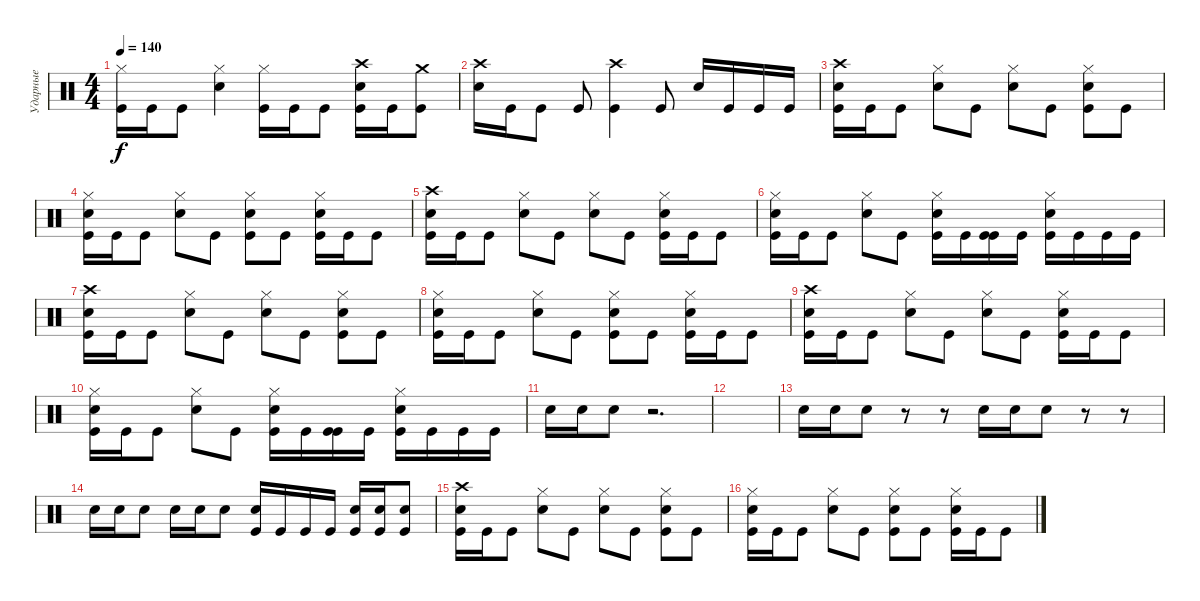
\track ("Ударные" "Ударные") {instrument percussion}
\staff {score}
\articulation defaults
\ts (4 4)
\tempo 140
\clef neutral
\ks c
("Hi-Hat (closed)" "Kick (hit)").16{dy f} "Kick (hit)".16 "Kick (hit)".8 ("Hi-Hat (closed)" "Electric Snare (hit)").4 ("Hi-Hat (closed)" "Kick (hit)").16 "Kick (hit)".16 "Kick (hit)".8 ("Crash high (hit)" "Electric Snare (hit)" "Kick (hit)").16 "Kick (hit)".16 ("Crash medium (hit)" "Kick (hit)").8 |
("Crash high (hit)" "Electric Snare (hit)").16 "Kick (hit)".16 "Kick (hit)".8 "Kick (hit)".8 ("Crash high (hit)" "Kick (hit)").4 "Kick (hit)".8 "Electric Snare (hit)".16 "Kick (hit)".16 "Kick (hit)".16 "Kick (hit)".16 |
("Crash high (hit)" "Electric Snare (hit)" "Kick (hit)").16 "Kick (hit)".16 "Kick (hit)".8 ("Hi-Hat (closed)" "Electric Snare (hit)").8 "Kick (hit)".8 ("Hi-Hat (closed)" "Electric Snare (hit)").8 "Kick (hit)".8 ("Hi-Hat (closed)" "Electric Snare (hit)" "Kick (hit)").8 "Kick (hit)".8 |
("Hi-Hat (closed)" "Electric Snare (hit)" "Kick (hit)").16 "Kick (hit)".16 "Kick (hit)".8 ("Hi-Hat (closed)" "Electric Snare (hit)").8 "Kick (hit)".8 ("Hi-Hat (closed)" "Electric Snare (hit)" "Kick (hit)").8 "Kick (hit)".8 ("Hi-Hat (closed)" "Electric Snare (hit)" "Kick (hit)").16 "Kick (hit)".16 "Kick (hit)".8 |
("Crash high (hit)" "Electric Snare (hit)" "Kick (hit)").16 "Kick (hit)".16 "Kick (hit)".8 ("Hi-Hat (closed)" "Electric Snare (hit)").8 "Kick (hit)".8 ("Hi-Hat (closed)" "Electric Snare (hit)").8 "Kick (hit)".8 ("Hi-Hat (closed)" "Electric Snare (hit)" "Kick (hit)").16 "Kick (hit)".16 "Kick (hit)".8 |
("Hi-Hat (closed)" "Electric Snare (hit)" "Kick (hit)").16 "Kick (hit)".16 "Kick (hit)".8 ("Hi-Hat (closed)" "Electric Snare (hit)").8 "Kick (hit)".8 ("Hi-Hat (closed)" "Electric Snare (hit)" "Kick (hit)").16 "Kick (hit)".16 ("Kick (hit)" "Kick (hit)").16 "Kick (hit)".16 ("Hi-Hat (closed)" "Electric Snare (hit)" "Kick (hit)").16 "Kick (hit)".16 "Kick (hit)".16 "Kick (hit)".16 |
("Crash high (hit)" "Electric Snare (hit)" "Kick (hit)").16 "Kick (hit)".16 "Kick (hit)".8 ("Hi-Hat (closed)" "Electric Snare (hit)").8 "Kick (hit)".8 ("Hi-Hat (closed)" "Electric Snare (hit)").8 "Kick (hit)".8 ("Hi-Hat (closed)" "Electric Snare (hit)" "Kick (hit)").8 "Kick (hit)".8 |
("Hi-Hat (closed)" "Electric Snare (hit)" "Kick (hit)").16 "Kick (hit)".16 "Kick (hit)".8 ("Hi-Hat (closed)" "Electric Snare (hit)").8 "Kick (hit)".8 ("Hi-Hat (closed)" "Electric Snare (hit)" "Kick (hit)").8 "Kick (hit)".8 ("Hi-Hat (closed)" "Electric Snare (hit)" "Kick (hit)").16 "Kick (hit)".16 "Kick (hit)".8 |
("Crash high (hit)" "Electric Snare (hit)" "Kick (hit)").16 "Kick (hit)".16 "Kick (hit)".8 ("Hi-Hat (closed)" "Electric Snare (hit)").8 "Kick (hit)".8 ("Hi-Hat (closed)" "Electric Snare (hit)").8 "Kick (hit)".8 ("Hi-Hat (closed)" "Electric Snare (hit)" "Kick (hit)").16 "Kick (hit)".16 "Kick (hit)".8 |
("Hi-Hat (closed)" "Electric Snare (hit)" "Kick (hit)").16 "Kick (hit)".16 "Kick (hit)".8 ("Hi-Hat (closed)" "Electric Snare (hit)").8 "Kick (hit)".8 ("Hi-Hat (closed)" "Electric Snare (hit)" "Kick (hit)").16 "Kick (hit)".16 ("Kick (hit)" "Kick (hit)").16 "Kick (hit)".16 ("Hi-Hat (closed)" "Electric Snare (hit)" "Kick (hit)").16 "Kick (hit)".16 "Kick (hit)".16 "Kick (hit)".16 |
"Electric Snare (hit)".16 "Electric Snare (hit)".16 "Electric Snare (hit)".8 r.2{d} |
|
"Electric Snare (hit)".16 "Electric Snare (hit)".16 "Electric Snare (hit)".8 r.8 r.8 "Electric Snare (hit)".16 "Electric Snare (hit)".16 "Electric Snare (hit)".8 r.8 r.8 |
"Electric Snare (hit)".16 "Electric Snare (hit)".16 "Electric Snare (hit)".8 "Electric Snare (hit)".16 "Electric Snare (hit)".16 "Electric Snare (hit)".8 ("Electric Snare (hit)" "Kick (hit)").16 "Kick (hit)".16 "Kick (hit)".16 "Kick (hit)".16 ("Electric Snare (hit)" "Kick (hit)").16 ("Electric Snare (hit)" "Kick (hit)").16 ("Electric Snare (hit)" "Kick (hit)").8 |
("Crash high (hit)" "Electric Snare (hit)" "Kick (hit)").16 "Kick (hit)".16 "Kick (hit)".8 ("Hi-Hat (closed)" "Electric Snare (hit)").8 "Kick (hit)".8 ("Hi-Hat (closed)" "Electric Snare (hit)").8 "Kick (hit)".8 ("Hi-Hat (closed)" "Electric Snare (hit)" "Kick (hit)").8 "Kick (hit)".8 |
("Hi-Hat (closed)" "Electric Snare (hit)" "Kick (hit)").16 "Kick (hit)".16 "Kick (hit)".8 ("Hi-Hat (closed)" "Electric Snare (hit)").8 "Kick (hit)".8 ("Hi-Hat (closed)" "Electric Snare (hit)" "Kick (hit)").8 "Kick (hit)".8 ("Hi-Hat (closed)" "Electric Snare (hit)" "Kick (hit)").16 "Kick (hit)".16 "Kick (hit)".8
